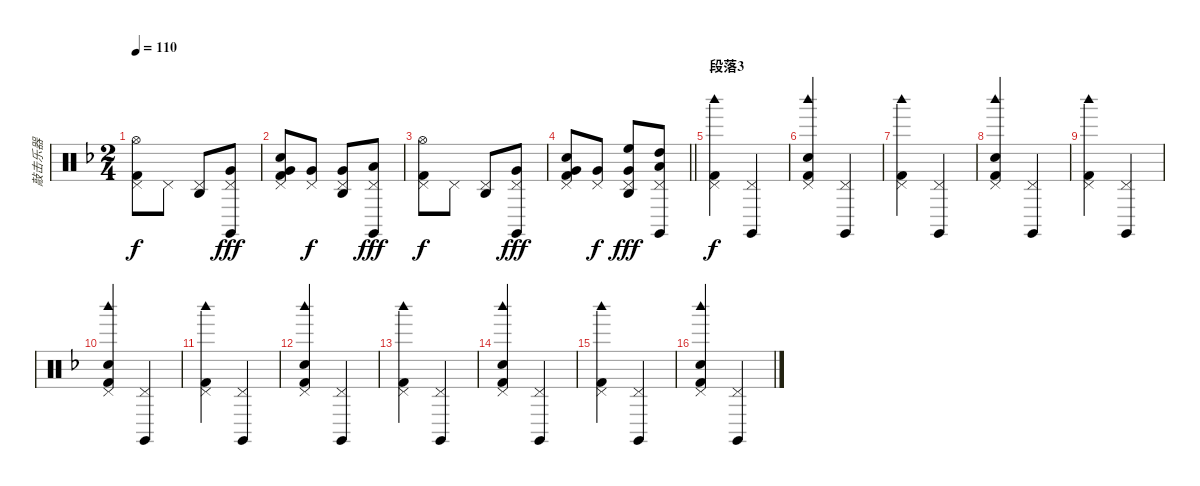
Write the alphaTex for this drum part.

\track ("敲击乐器" "敲击乐器") {instrument percussion}
\staff {score}
\articulation defaults
\ts (2 4)
\tempo 110
\clef neutral
\ks dminor
("Hi-Hat (open)" "Pedal Hi-Hat (hit)" "Kick (hit) 2").8{dy f} "Pedal Hi-Hat (hit)".8 ("Pedal Hi-Hat (hit)" "Agogo high (hit)").8 ("Pedal Hi-Hat (hit)" "Claves (hit)" "Very Low Tom (hit)").8{dy fff} |
("Pedal Hi-Hat (hit)" "Electric Snare (hit)" "Very Low Tom (hit)" "Kick (hit) 2").8 ("Pedal Hi-Hat (hit)" "Very Low Tom (hit)").8{dy f} ("Pedal Hi-Hat (hit)" "Agogo high (hit)" "Very Low Tom (hit)").8 ("Pedal Hi-Hat (hit)" "Claves (hit)" "Low Floor Tom (hit)").8{dy fff} |
("Hi-Hat (open)" "Pedal Hi-Hat (hit)" "Kick (hit) 2").8{dy f} "Pedal Hi-Hat (hit)".8 ("Pedal Hi-Hat (hit)" "Agogo high (hit)").8 ("Pedal Hi-Hat (hit)" "Claves (hit)" "Very Low Tom (hit)").8{dy fff} |
\barLineRight lightlight
("Pedal Hi-Hat (hit)" "Electric Snare (hit)" "Very Low Tom (hit)" "Kick (hit) 2").8 ("Pedal Hi-Hat (hit)" "Very Low Tom (hit)").8{dy f} ("Pedal Hi-Hat (hit)" "Agogo high (hit)" "High Floor Tom (hit)" "Very Low Tom (hit)").8{dy fff} ("Pedal Hi-Hat (hit)" "Claves (hit)" "High Tom (hit)" "Low Floor Tom (hit)").8 |
\section ("" "段落3")
("Pedal Hi-Hat (hit)" "Woodblock high (hit)" "Kick (hit) 2").4{dy f} ("Pedal Hi-Hat (hit)" "Claves (hit)").4 |
("Pedal Hi-Hat (hit)" "Woodblock high (hit)" "Hand Clap (hit)" "Kick (hit) 2").4 ("Pedal Hi-Hat (hit)" "Claves (hit)").4 |
("Pedal Hi-Hat (hit)" "Woodblock high (hit)" "Kick (hit) 2").4 ("Pedal Hi-Hat (hit)" "Claves (hit)").4 |
("Pedal Hi-Hat (hit)" "Woodblock high (hit)" "Hand Clap (hit)" "Kick (hit) 2").4 ("Pedal Hi-Hat (hit)" "Claves (hit)").4 |
("Pedal Hi-Hat (hit)" "Woodblock high (hit)" "Kick (hit) 2").4 ("Pedal Hi-Hat (hit)" "Claves (hit)").4 |
("Pedal Hi-Hat (hit)" "Woodblock high (hit)" "Hand Clap (hit)" "Kick (hit) 2").4 ("Pedal Hi-Hat (hit)" "Claves (hit)").4 |
("Pedal Hi-Hat (hit)" "Woodblock high (hit)" "Kick (hit) 2").4 ("Pedal Hi-Hat (hit)" "Claves (hit)").4 |
("Pedal Hi-Hat (hit)" "Woodblock high (hit)" "Hand Clap (hit)" "Kick (hit) 2").4 ("Pedal Hi-Hat (hit)" "Claves (hit)").4 |
("Pedal Hi-Hat (hit)" "Woodblock high (hit)" "Kick (hit) 2").4 ("Pedal Hi-Hat (hit)" "Claves (hit)").4 |
("Pedal Hi-Hat (hit)" "Woodblock high (hit)" "Hand Clap (hit)" "Kick (hit) 2").4 ("Pedal Hi-Hat (hit)" "Claves (hit)").4 |
("Pedal Hi-Hat (hit)" "Woodblock high (hit)" "Kick (hit) 2").4 ("Pedal Hi-Hat (hit)" "Claves (hit)").4 |
("Pedal Hi-Hat (hit)" "Woodblock high (hit)" "Hand Clap (hit)" "Kick (hit) 2").4 ("Pedal Hi-Hat (hit)" "Claves (hit)").4
